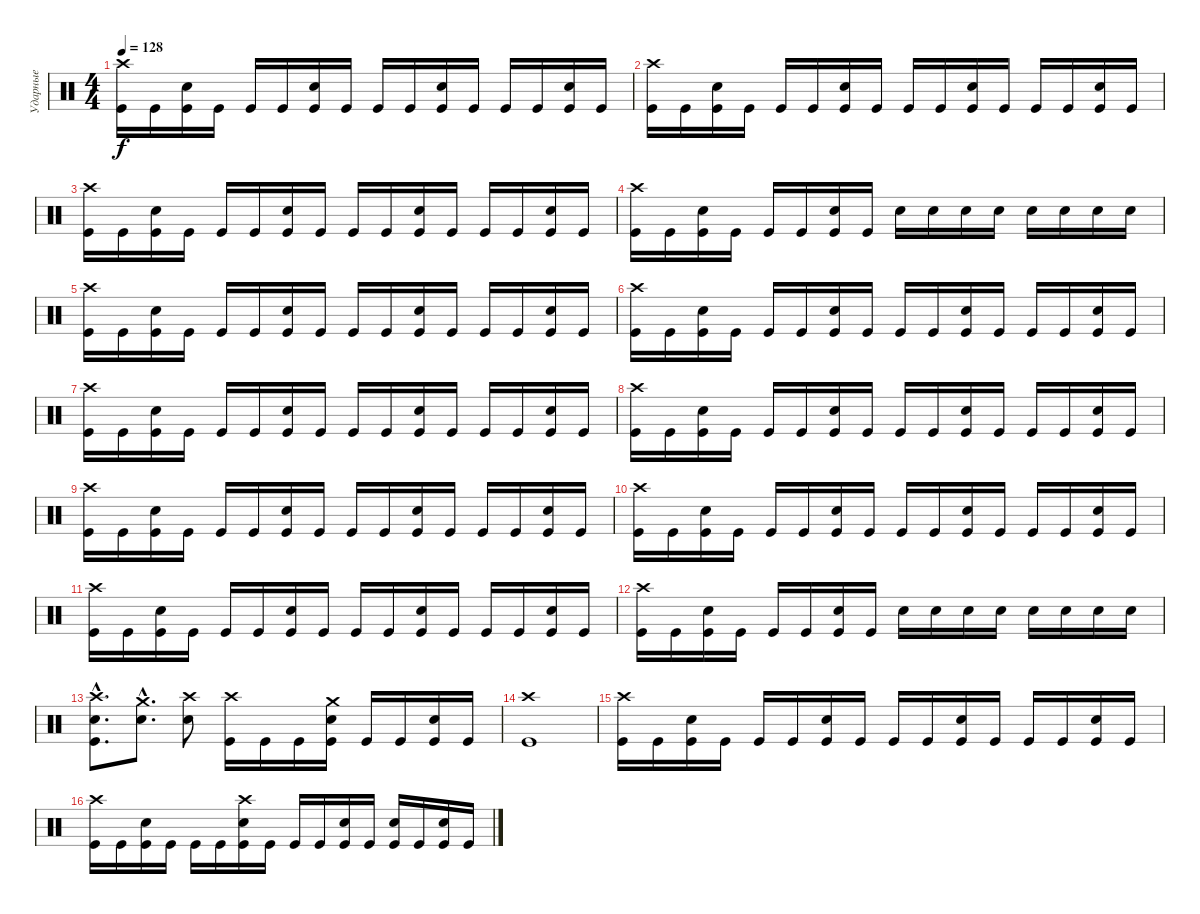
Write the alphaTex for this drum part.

\track ("Ударные" "Ударные") {instrument percussion}
\staff {score}
\articulation defaults
\ts (4 4)
\tempo 128
\clef neutral
\ks c
("Crash high (hit)" "Kick (hit)").16{dy f} "Kick (hit)".16 ("Electric Snare (hit)" "Kick (hit)").16 "Kick (hit)".16 "Kick (hit)".16 "Kick (hit)".16 ("Electric Snare (hit)" "Kick (hit)").16 "Kick (hit)".16 "Kick (hit)".16 "Kick (hit)".16 ("Electric Snare (hit)" "Kick (hit)").16 "Kick (hit)".16 "Kick (hit)".16 "Kick (hit)".16 ("Electric Snare (hit)" "Kick (hit)").16 "Kick (hit)".16 |
("Crash high (hit)" "Kick (hit)").16 "Kick (hit)".16 ("Electric Snare (hit)" "Kick (hit)").16 "Kick (hit)".16 "Kick (hit)".16 "Kick (hit)".16 ("Electric Snare (hit)" "Kick (hit)").16 "Kick (hit)".16 "Kick (hit)".16 "Kick (hit)".16 ("Electric Snare (hit)" "Kick (hit)").16 "Kick (hit)".16 "Kick (hit)".16 "Kick (hit)".16 ("Electric Snare (hit)" "Kick (hit)").16 "Kick (hit)".16 |
("Crash high (hit)" "Kick (hit)").16 "Kick (hit)".16 ("Electric Snare (hit)" "Kick (hit)").16 "Kick (hit)".16 "Kick (hit)".16 "Kick (hit)".16 ("Electric Snare (hit)" "Kick (hit)").16 "Kick (hit)".16 "Kick (hit)".16 "Kick (hit)".16 ("Electric Snare (hit)" "Kick (hit)").16 "Kick (hit)".16 "Kick (hit)".16 "Kick (hit)".16 ("Electric Snare (hit)" "Kick (hit)").16 "Kick (hit)".16 |
("Crash high (hit)" "Kick (hit)").16 "Kick (hit)".16 ("Electric Snare (hit)" "Kick (hit)").16 "Kick (hit)".16 "Kick (hit)".16 "Kick (hit)".16 ("Electric Snare (hit)" "Kick (hit)").16 "Kick (hit)".16 "Electric Snare (hit)".16 "Electric Snare (hit)".16 "Electric Snare (hit)".16 "Electric Snare (hit)".16 "Electric Snare (hit)".16 "Electric Snare (hit)".16 "Electric Snare (hit)".16 "Electric Snare (hit)".16 |
("Crash high (hit)" "Kick (hit)").16 "Kick (hit)".16 ("Electric Snare (hit)" "Kick (hit)").16 "Kick (hit)".16 "Kick (hit)".16 "Kick (hit)".16 ("Electric Snare (hit)" "Kick (hit)").16 "Kick (hit)".16 "Kick (hit)".16 "Kick (hit)".16 ("Electric Snare (hit)" "Kick (hit)").16 "Kick (hit)".16 "Kick (hit)".16 "Kick (hit)".16 ("Electric Snare (hit)" "Kick (hit)").16 "Kick (hit)".16 |
("Crash high (hit)" "Kick (hit)").16 "Kick (hit)".16 ("Electric Snare (hit)" "Kick (hit)").16 "Kick (hit)".16 "Kick (hit)".16 "Kick (hit)".16 ("Electric Snare (hit)" "Kick (hit)").16 "Kick (hit)".16 "Kick (hit)".16 "Kick (hit)".16 ("Electric Snare (hit)" "Kick (hit)").16 "Kick (hit)".16 "Kick (hit)".16 "Kick (hit)".16 ("Electric Snare (hit)" "Kick (hit)").16 "Kick (hit)".16 |
("Crash high (hit)" "Kick (hit)").16 "Kick (hit)".16 ("Electric Snare (hit)" "Kick (hit)").16 "Kick (hit)".16 "Kick (hit)".16 "Kick (hit)".16 ("Electric Snare (hit)" "Kick (hit)").16 "Kick (hit)".16 "Kick (hit)".16 "Kick (hit)".16 ("Electric Snare (hit)" "Kick (hit)").16 "Kick (hit)".16 "Kick (hit)".16 "Kick (hit)".16 ("Electric Snare (hit)" "Kick (hit)").16 "Kick (hit)".16 |
("Crash high (hit)" "Kick (hit)").16 "Kick (hit)".16 ("Electric Snare (hit)" "Kick (hit)").16 "Kick (hit)".16 "Kick (hit)".16 "Kick (hit)".16 ("Electric Snare (hit)" "Kick (hit)").16 "Kick (hit)".16 "Kick (hit)".16 "Kick (hit)".16 ("Electric Snare (hit)" "Kick (hit)").16 "Kick (hit)".16 "Kick (hit)".16 "Kick (hit)".16 ("Electric Snare (hit)" "Kick (hit)").16 "Kick (hit)".16 |
("Crash high (hit)" "Kick (hit)").16 "Kick (hit)".16 ("Electric Snare (hit)" "Kick (hit)").16 "Kick (hit)".16 "Kick (hit)".16 "Kick (hit)".16 ("Electric Snare (hit)" "Kick (hit)").16 "Kick (hit)".16 "Kick (hit)".16 "Kick (hit)".16 ("Electric Snare (hit)" "Kick (hit)").16 "Kick (hit)".16 "Kick (hit)".16 "Kick (hit)".16 ("Electric Snare (hit)" "Kick (hit)").16 "Kick (hit)".16 |
("Crash high (hit)" "Kick (hit)").16 "Kick (hit)".16 ("Electric Snare (hit)" "Kick (hit)").16 "Kick (hit)".16 "Kick (hit)".16 "Kick (hit)".16 ("Electric Snare (hit)" "Kick (hit)").16 "Kick (hit)".16 "Kick (hit)".16 "Kick (hit)".16 ("Electric Snare (hit)" "Kick (hit)").16 "Kick (hit)".16 "Kick (hit)".16 "Kick (hit)".16 ("Electric Snare (hit)" "Kick (hit)").16 "Kick (hit)".16 |
("Crash high (hit)" "Kick (hit)").16 "Kick (hit)".16 ("Electric Snare (hit)" "Kick (hit)").16 "Kick (hit)".16 "Kick (hit)".16 "Kick (hit)".16 ("Electric Snare (hit)" "Kick (hit)").16 "Kick (hit)".16 "Kick (hit)".16 "Kick (hit)".16 ("Electric Snare (hit)" "Kick (hit)").16 "Kick (hit)".16 "Kick (hit)".16 "Kick (hit)".16 ("Electric Snare (hit)" "Kick (hit)").16 "Kick (hit)".16 |
("Crash high (hit)" "Kick (hit)").16 "Kick (hit)".16 ("Electric Snare (hit)" "Kick (hit)").16 "Kick (hit)".16 "Kick (hit)".16 "Kick (hit)".16 ("Electric Snare (hit)" "Kick (hit)").16 "Kick (hit)".16 "Electric Snare (hit)".16 "Electric Snare (hit)".16 "Electric Snare (hit)".16 "Electric Snare (hit)".16 "Electric Snare (hit)".16 "Electric Snare (hit)".16 "Electric Snare (hit)".16 "Electric Snare (hit)".16 |
("Crash high (hit)"{hac} "Electric Snare (hit)"{hac} "Kick (hit)"{hac}).8{d} ("Crash medium (hit)"{hac} "Electric Snare (hit)"{hac}).8{d} ("Crash high (hit)" "Electric Snare (hit)").8 ("Crash high (hit)" "Kick (hit)").16 "Kick (hit)".16 "Kick (hit)".16 ("Crash medium (hit)" "Electric Snare (hit)" "Kick (hit)").16 "Kick (hit)".16 "Kick (hit)".16 ("Electric Snare (hit)" "Kick (hit)").16 "Kick (hit)".16 |
("Crash high (hit)" "Kick (hit)").1 |
("Crash high (hit)" "Kick (hit)").16 "Kick (hit)".16 ("Electric Snare (hit)" "Kick (hit)").16 "Kick (hit)".16 "Kick (hit)".16 "Kick (hit)".16 ("Electric Snare (hit)" "Kick (hit)").16 "Kick (hit)".16 "Kick (hit)".16 "Kick (hit)".16 ("Electric Snare (hit)" "Kick (hit)").16 "Kick (hit)".16 "Kick (hit)".16 "Kick (hit)".16 ("Electric Snare (hit)" "Kick (hit)").16 "Kick (hit)".16 |
("Crash high (hit)" "Kick (hit)").16 "Kick (hit)".16 ("Electric Snare (hit)" "Kick (hit)").16 "Kick (hit)".16 "Kick (hit)".16 "Kick (hit)".16 ("Crash high (hit)" "Electric Snare (hit)" "Kick (hit)").16 "Kick (hit)".16 "Kick (hit)".16 "Kick (hit)".16 ("Electric Snare (hit)" "Kick (hit)").16 "Kick (hit)".16 ("Electric Snare (hit)" "Kick (hit)").16 "Kick (hit)".16 ("Electric Snare (hit)" "Kick (hit)").16 "Kick (hit)".16
